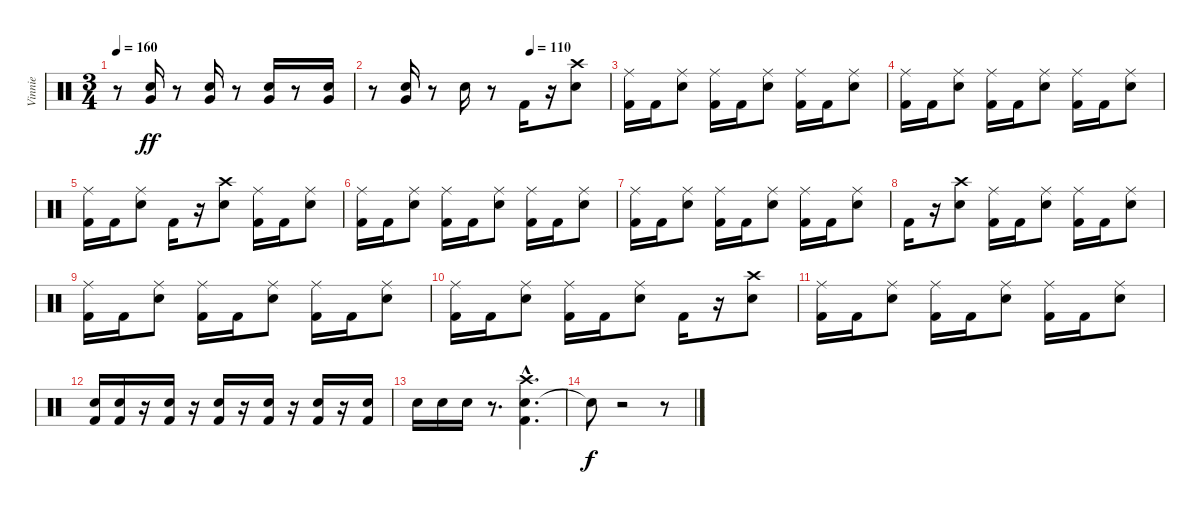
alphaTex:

\track ("Vinnie" "Vinnie") {instrument percussion}
\staff {score}
\articulation defaults
\ts (3 4)
\tempo 160
\clef neutral
\ks c
r.8{dy ff} ("Electric Snare (hit)" "Very Low Tom (hit)").16 r.8 ("Electric Snare (hit)" "Very Low Tom (hit)").16 r.8 ("Electric Snare (hit)" "Very Low Tom (hit)").16 r.8 ("Electric Snare (hit)" "Very Low Tom (hit)").16 |
\tempo (110 0.6666666666666666)
r.8 ("Electric Snare (hit)" "Very Low Tom (hit)").16 r.8 "Electric Snare (hit)".16 r.8 "Kick (hit) 2".16 r.16 ("Electric Snare (hit)" "Crash high (hit)").8 |
("Ride (middle)" "Kick (hit) 2").16 "Kick (hit) 2".16 ("Ride (middle)" "Electric Snare (hit)").8 ("Ride (middle)" "Kick (hit) 2").16 "Kick (hit) 2".16 ("Ride (middle)" "Electric Snare (hit)").8 ("Ride (middle)" "Kick (hit) 2").16 "Kick (hit) 2".16 ("Ride (middle)" "Electric Snare (hit)").8 |
("Ride (middle)" "Kick (hit) 2").16 "Kick (hit) 2".16 ("Ride (middle)" "Electric Snare (hit)").8 ("Ride (middle)" "Kick (hit) 2").16 "Kick (hit) 2".16 ("Ride (middle)" "Electric Snare (hit)").8 ("Ride (middle)" "Kick (hit) 2").16 "Kick (hit) 2".16 ("Ride (middle)" "Electric Snare (hit)").8 |
("Ride (middle)" "Kick (hit) 2").16 "Kick (hit) 2".16 ("Ride (middle)" "Electric Snare (hit)").8 "Kick (hit) 2".16 r.16 ("Crash high (hit)" "Electric Snare (hit)").8 ("Ride (middle)" "Kick (hit) 2").16 "Kick (hit) 2".16 ("Ride (middle)" "Electric Snare (hit)").8 |
("Ride (middle)" "Kick (hit) 2").16 "Kick (hit) 2".16 ("Ride (middle)" "Electric Snare (hit)").8 ("Ride (middle)" "Kick (hit) 2").16 "Kick (hit) 2".16 ("Ride (middle)" "Electric Snare (hit)").8 ("Ride (middle)" "Kick (hit) 2").16 "Kick (hit) 2".16 ("Ride (middle)" "Electric Snare (hit)").8 |
("Ride (middle)" "Kick (hit) 2").16 "Kick (hit) 2".16 ("Ride (middle)" "Electric Snare (hit)").8 ("Ride (middle)" "Kick (hit) 2").16 "Kick (hit) 2".16 ("Ride (middle)" "Electric Snare (hit)").8 ("Ride (middle)" "Kick (hit) 2").16 "Kick (hit) 2".16 ("Ride (middle)" "Electric Snare (hit)").8 |
"Kick (hit) 2".16 r.16 ("Crash high (hit)" "Electric Snare (hit)").8 ("Ride (middle)" "Kick (hit) 2").16 "Kick (hit) 2".16 ("Ride (middle)" "Electric Snare (hit)").8 ("Ride (middle)" "Kick (hit) 2").16 "Kick (hit) 2".16 ("Ride (middle)" "Electric Snare (hit)").8 |
("Ride (middle)" "Kick (hit) 2").16 "Kick (hit) 2".16 ("Ride (middle)" "Electric Snare (hit)").8 ("Ride (middle)" "Kick (hit) 2").16 "Kick (hit) 2".16 ("Ride (middle)" "Electric Snare (hit)").8 ("Ride (middle)" "Kick (hit) 2").16 "Kick (hit) 2".16 ("Ride (middle)" "Electric Snare (hit)").8 |
("Ride (middle)" "Kick (hit) 2").16 "Kick (hit) 2".16 ("Ride (middle)" "Electric Snare (hit)").8 ("Ride (middle)" "Kick (hit) 2").16 "Kick (hit) 2".16 ("Ride (middle)" "Electric Snare (hit)").8 "Kick (hit) 2".16 r.16 ("Crash high (hit)" "Electric Snare (hit)").8 |
("Ride (middle)" "Kick (hit) 2").16 "Kick (hit) 2".16 ("Ride (middle)" "Electric Snare (hit)").8 ("Ride (middle)" "Kick (hit) 2").16 "Kick (hit) 2".16 ("Ride (middle)" "Electric Snare (hit)").8 ("Ride (middle)" "Kick (hit) 2").16 "Kick (hit) 2".16 ("Ride (middle)" "Electric Snare (hit)").8 |
("Electric Snare (hit)" "Kick (hit) 2").16 ("Electric Snare (hit)" "Kick (hit) 2").16 r.16 ("Electric Snare (hit)" "Kick (hit) 2").16 r.16 ("Electric Snare (hit)" "Kick (hit) 2").16 r.16 ("Electric Snare (hit)" "Kick (hit) 2").16 r.16 ("Electric Snare (hit)" "Kick (hit) 2").16 r.16 ("Electric Snare (hit)" "Kick (hit) 2").16 |
"Electric Snare (hit)".16 "Electric Snare (hit)".16 "Electric Snare (hit)".16 r.8{d} ("Electric Snare (hit)" "Crash high (hit)"{hac} "Kick (hit) 2").4{d} |
"Snare (hit)"{t}.8{dy f} r.2 r.8
